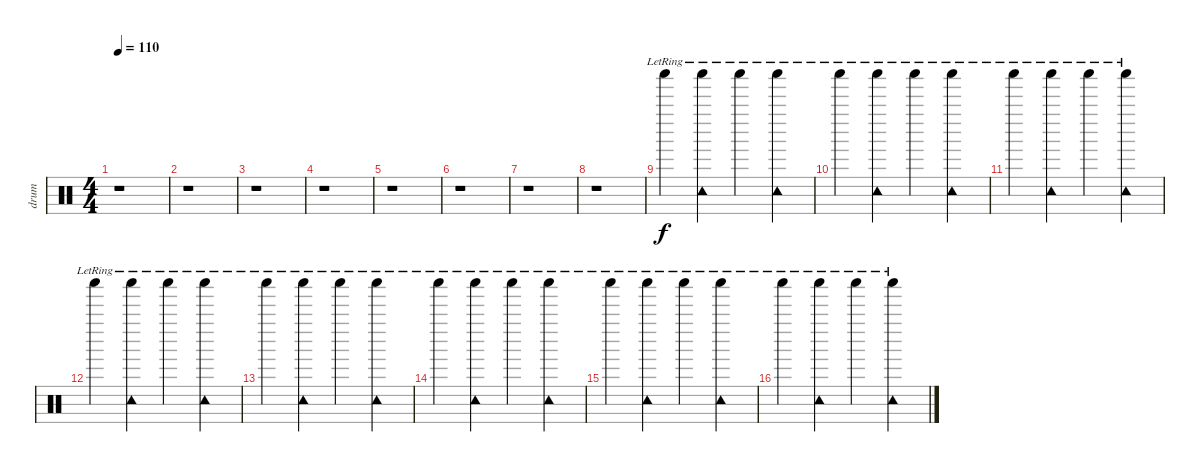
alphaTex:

\track ("drum" "drum") {instrument percussion}
\staff {score}
\articulation defaults
\ts (4 4)
\tempo 110
\clef neutral
\ks c
r.1{dy f} |
r.1 |
r.1 |
r.1 |
r.1 |
r.1 |
r.1 |
r.1 |
"Shaker (hit)"{lr}.4 ("Tambourine (hit)"{lr} "Shaker (hit)"{lr}).4 "Shaker (hit)"{lr}.4 ("Tambourine (hit)"{lr} "Shaker (hit)"{lr}).4 |
"Shaker (hit)"{lr}.4 ("Tambourine (hit)"{lr} "Shaker (hit)"{lr}).4 "Shaker (hit)"{lr}.4 ("Tambourine (hit)"{lr} "Shaker (hit)"{lr}).4 |
"Shaker (hit)"{lr}.4 ("Tambourine (hit)"{lr} "Shaker (hit)"{lr}).4 "Shaker (hit)"{lr}.4 ("Tambourine (hit)"{lr} "Shaker (hit)"{lr}).4 |
"Shaker (hit)"{lr}.4 ("Tambourine (hit)"{lr} "Shaker (hit)"{lr}).4 "Shaker (hit)"{lr}.4 ("Tambourine (hit)"{lr} "Shaker (hit)"{lr}).4 |
"Shaker (hit)"{lr}.4 ("Tambourine (hit)"{lr} "Shaker (hit)"{lr}).4 "Shaker (hit)"{lr}.4 ("Tambourine (hit)"{lr} "Shaker (hit)"{lr}).4 |
"Shaker (hit)"{lr}.4 ("Tambourine (hit)"{lr} "Shaker (hit)"{lr}).4 "Shaker (hit)"{lr}.4 ("Tambourine (hit)"{lr} "Shaker (hit)"{lr}).4 |
"Shaker (hit)"{lr}.4 ("Tambourine (hit)"{lr} "Shaker (hit)"{lr}).4 "Shaker (hit)"{lr}.4 ("Tambourine (hit)"{lr} "Shaker (hit)"{lr}).4 |
"Shaker (hit)"{lr}.4 ("Tambourine (hit)"{lr} "Shaker (hit)"{lr}).4 "Shaker (hit)"{lr}.4 ("Tambourine (hit)"{lr} "Shaker (hit)"{lr}).4
